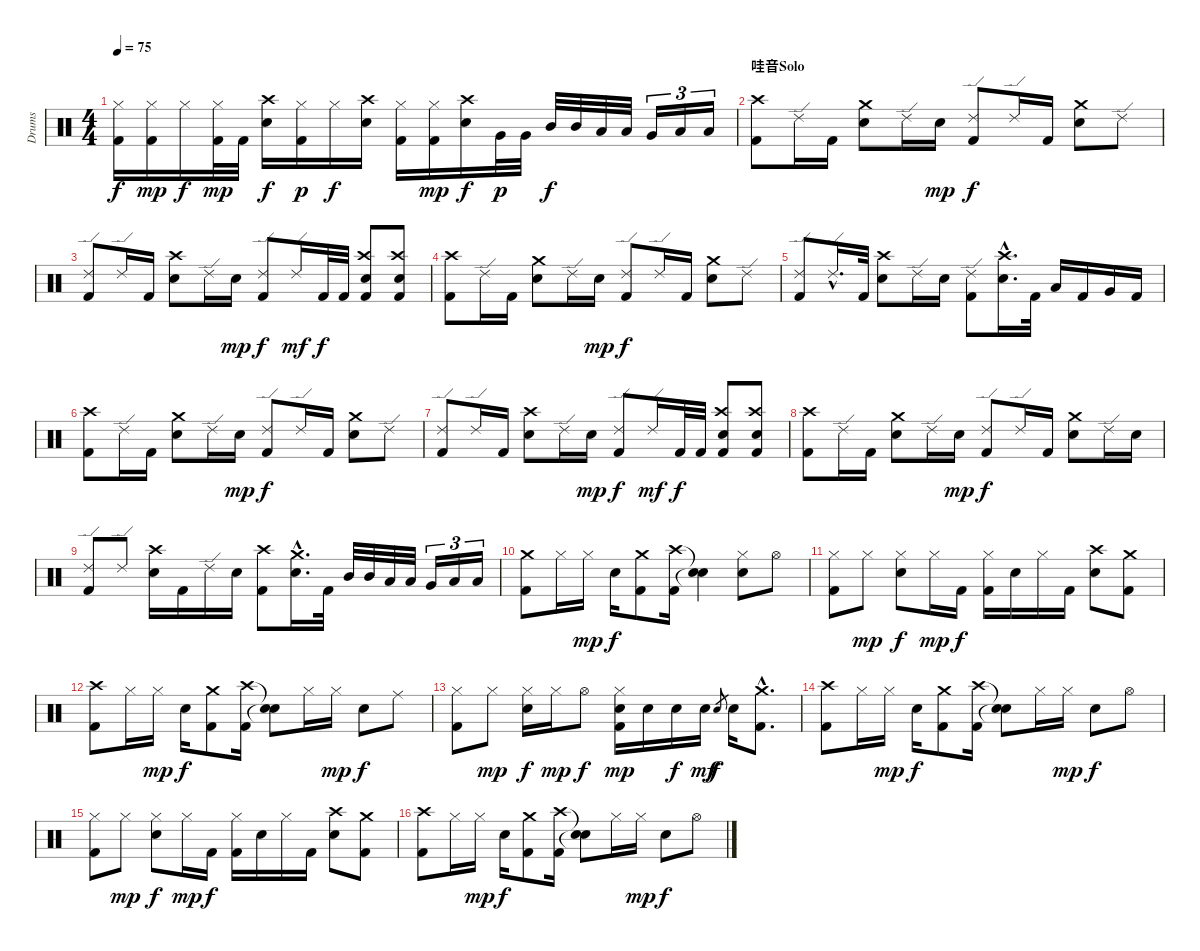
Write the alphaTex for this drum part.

\track ("Drums" "Drums") {instrument percussion}
\staff {score}
\articulation defaults
\ts (4 4)
\tempo 75
\clef neutral
\ks c
("Hi-Hat (closed)" "Kick (hit) 2").16{dy f} ("Hi-Hat (closed)" "Kick (hit) 2").16{dy mp} "Hi-Hat (closed)".16{dy f} ("Kick (hit) 2" "Hi-Hat (closed)").32{dy mp} "Kick (hit) 2".32 ("Crash high (hit)" "Electric Snare (hit)").16{dy f} ("Hi-Hat (closed)" "Kick (hit) 2").16{dy p} "Hi-Hat (closed)".16{dy f} ("Crash high (hit)" "Electric Snare (hit)").16 ("Hi-Hat (closed)" "Kick (hit) 2").16 ("Hi-Hat (closed)" "Kick (hit) 2").16{dy mp} ("Crash high (hit)" "Electric Snare (hit)").16{dy f} "Very Low Tom (hit)".32{dy p} "Very Low Tom (hit)".32 "Mid Tom (hit)".32{dy f} "Mid Tom (hit)".32 "Low Tom (hit)".32 "Low Tom (hit)".32 "Very Low Tom (hit)".16{tu (3 2)} "Low Floor Tom (hit)".16{tu (3 2)} "Low Floor Tom (hit)".16{tu (3 2)} |
\section ("" "哇音Solo")
("Crash high (hit)" "Kick (hit) 2").8 "Ride (edge) 2".16 "Kick (hit) 2".16 ("Crash medium (hit)" "Electric Snare (hit)").8 "Ride (edge) 2".16 "Electric Snare (hit)"{tr (40 32)}.16{dy mp} ("Ride (edge) 2" "Kick (hit) 2").8{dy f} "Ride (edge) 2".16 "Kick (hit) 2".16 ("Crash medium (hit)" "Electric Snare (hit)").8 "Ride (edge) 2".8 |
("Ride (edge) 2" "Kick (hit) 2").8 "Ride (edge) 2".16 "Kick (hit) 2".16 ("Crash high (hit)" "Electric Snare (hit)").8 "Ride (edge) 2".16 "Electric Snare (hit)"{tr (40 32)}.16{dy mp} ("Ride (edge) 2" "Kick (hit) 2").8{dy f} "Ride (edge) 2".16{dy mf} "Kick (hit) 2".32{dy f} "Kick (hit) 2".32 ("Crash high (hit)" "Electric Snare (hit)" "Kick (hit) 2").8 ("Crash high (hit)" "Electric Snare (hit)" "Kick (hit) 2").8 |
("Crash high (hit)" "Kick (hit) 2").8 "Ride (edge) 2".16 "Kick (hit) 2".16 ("Crash medium (hit)" "Electric Snare (hit)").8 "Ride (edge) 2".16 "Electric Snare (hit)"{tr (40 32)}.16{dy mp} ("Ride (edge) 2" "Kick (hit) 2").8{dy f} "Ride (edge) 2".16 "Kick (hit) 2".16 ("Crash medium (hit)" "Electric Snare (hit)").8 "Ride (edge) 2".8 |
("Ride (edge) 2" "Kick (hit) 2").8 "Ride (edge) 2"{hac}.16{d} "Kick (hit) 2".32 ("Crash high (hit)" "Electric Snare (hit)").8 "Ride (edge) 2".16 "Electric Snare (hit)".16 ("Ride (edge) 2" "Kick (hit) 2").8 ("Crash high (hit)"{hac} "Electric Snare (hit)"{hac}).16{d} "Kick (hit) 2".32 "Low Tom (hit)".16 "Kick (hit) 2".16 "Very Low Tom (hit)".16 "Kick (hit) 2".16 |
("Crash high (hit)" "Kick (hit) 2").8 "Ride (edge) 2".16 "Kick (hit) 2".16 ("Crash medium (hit)" "Electric Snare (hit)").8 "Ride (edge) 2".16 "Electric Snare (hit)"{tr (40 32)}.16{dy mp} ("Ride (edge) 2" "Kick (hit) 2").8{dy f} "Ride (edge) 2".16 "Kick (hit) 2".16 ("Crash medium (hit)" "Electric Snare (hit)").8 "Ride (edge) 2".8 |
("Ride (edge) 2" "Kick (hit) 2").8 "Ride (edge) 2".16 "Kick (hit) 2".16 ("Crash high (hit)" "Electric Snare (hit)").8 "Ride (edge) 2".16 "Electric Snare (hit)"{tr (40 32)}.16{dy mp} ("Ride (edge) 2" "Kick (hit) 2").8{dy f} "Ride (edge) 2".16{dy mf} "Kick (hit) 2".32{dy f} "Kick (hit) 2".32 ("Crash high (hit)" "Electric Snare (hit)" "Kick (hit) 2").8 ("Crash high (hit)" "Electric Snare (hit)" "Kick (hit) 2").8 |
("Crash high (hit)" "Kick (hit) 2").8 "Ride (edge) 2".16 "Kick (hit) 2".16 ("Crash medium (hit)" "Electric Snare (hit)").8 "Ride (edge) 2".16 "Electric Snare (hit)"{tr (40 32)}.16{dy mp} ("Ride (edge) 2" "Kick (hit) 2").8{dy f} "Ride (edge) 2".16 "Kick (hit) 2".16 ("Crash medium (hit)" "Electric Snare (hit)").8 "Ride (edge) 2".16 "Electric Snare (hit)".16 |
("Ride (edge) 2" "Kick (hit) 2").8 "Ride (edge) 2".8 ("Crash high (hit)" "Electric Snare (hit)").16 "Kick (hit) 2".16 "Ride (edge) 2".16 "Electric Snare (hit)".16 ("Crash high (hit)" "Kick (hit) 2").8 ("Crash medium (hit)"{hac} "Electric Snare (hit)"{hac}).16{d} "Kick (hit) 2".32 "Mid Tom (hit)".32 "Mid Tom (hit)".32 "Low Tom (hit)".32 "Low Tom (hit)".32 "Very Low Tom (hit)".16{tu (3 2)} "Low Floor Tom (hit)".16{tu (3 2)} "Low Floor Tom (hit)".16{tu (3 2)} |
("Crash medium (hit)" "Kick (hit) 2").8 "Hi-Hat (closed)".16 "Hi-Hat (closed)".16{dy mp} "Electric Snare (hit)".16{dy f} ("Crash medium (hit)" "Kick (hit) 2").8 ("Crash high (hit)" "Kick (hit) 2").16 ("Snare (hit)"{t} "Snare (hit)"{t}).4 ("Hi-Hat (closed)" "Electric Snare (hit)").8 "Hi-Hat (open)".8 |
("Hi-Hat (closed)" "Kick (hit) 2").8 "Hi-Hat (closed)".8{dy mp} ("Hi-Hat (closed)" "Electric Snare (hit)").8{dy f} "Hi-Hat (closed)".16{dy mp} "Kick (hit) 2".16{dy f} ("Hi-Hat (closed)" "Kick (hit) 2").16 "Electric Snare (hit)".16 "Hi-Hat (closed)".16 "Kick (hit) 2".16 ("Crash high (hit)" "Electric Snare (hit)").8 ("Crash medium (hit)" "Kick (hit) 2").8 |
("Crash high (hit)" "Kick (hit) 2").8 "Hi-Hat (closed)".16 "Hi-Hat (closed)".16{dy mp} "Electric Snare (hit)".16{dy f} ("Crash medium (hit)" "Kick (hit) 2").8 ("Crash high (hit)" "Kick (hit) 2").16 ("Snare (hit)"{t} "Snare (hit)"{t}).8 "Hi-Hat (closed)".16 "Hi-Hat (closed)".16{dy mp} "Electric Snare (hit)".8{dy f} "Ride (middle)".8 |
("Hi-Hat (closed)" "Kick (hit) 2").8 "Hi-Hat (closed)".8{dy mp} ("Hi-Hat (closed)" "Electric Snare (hit)").16{dy f} "Hi-Hat (closed)".16{dy mp} "Hi-Hat (open)".8{dy f} ("Hi-Hat (closed)" "Electric Snare (hit)" "Kick (hit) 2").16{dy mp} "Electric Snare (hit)".16 "Electric Snare (hit)".16{dy f} "Electric Snare (hit)".16{dy mf} "Electric Snare (hit)".8{gr dy f} "Electric Snare (hit)".16 ("Crash medium (hit)"{hac} "Kick (hit) 2"{hac}).8{d} |
("Crash high (hit)" "Kick (hit) 2").8 "Hi-Hat (closed)".16 "Hi-Hat (closed)".16{dy mp} "Electric Snare (hit)".16{dy f} ("Crash medium (hit)" "Kick (hit) 2").8 ("Crash high (hit)" "Kick (hit) 2").16 ("Snare (hit)"{t} "Snare (hit)"{t}).8 "Hi-Hat (closed)".16 "Hi-Hat (closed)".16{dy mp} "Electric Snare (hit)".8{dy f} "Hi-Hat (open)".8 |
("Hi-Hat (closed)" "Kick (hit) 2").8 "Hi-Hat (closed)".8{dy mp} ("Hi-Hat (closed)" "Electric Snare (hit)").8{dy f} "Hi-Hat (closed)".16{dy mp} "Kick (hit) 2".16{dy f} ("Hi-Hat (closed)" "Kick (hit) 2").16 "Electric Snare (hit)".16 "Hi-Hat (closed)".16 "Kick (hit) 2".16 ("Crash high (hit)" "Electric Snare (hit)").8 ("Crash medium (hit)" "Kick (hit) 2").8 |
("Crash high (hit)" "Kick (hit) 2").8 "Hi-Hat (closed)".16 "Hi-Hat (closed)".16{dy mp} "Electric Snare (hit)".16{dy f} ("Crash medium (hit)" "Kick (hit) 2").8 ("Crash high (hit)" "Kick (hit) 2").16 ("Snare (hit)"{t} "Snare (hit)"{t}).8 "Hi-Hat (closed)".16 "Hi-Hat (closed)".16{dy mp} "Electric Snare (hit)".8{dy f} "Hi-Hat (open)".8
